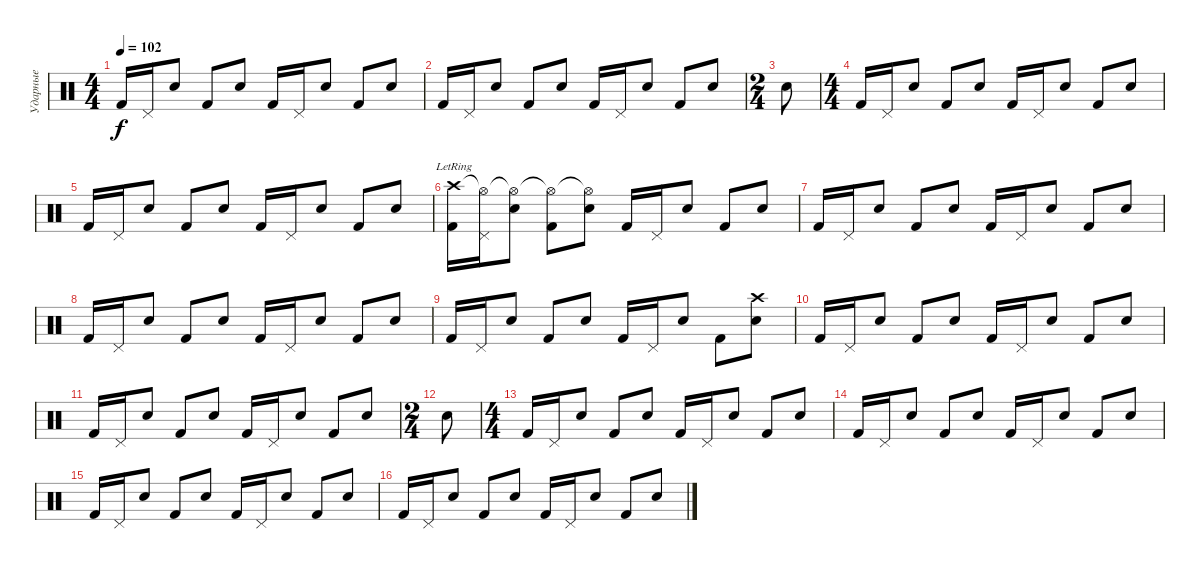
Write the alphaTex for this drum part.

\track ("Ударные" "Ударные") {instrument percussion}
\staff {score}
\articulation defaults
\ts (4 4)
\tempo 102
\clef neutral
\ks c "Kick (hit) 2".16{dy f} "Pedal Hi-Hat (hit)".16 "Snare (hit) 2".8 "Kick (hit) 2".8 "Snare (hit) 2".8 "Kick (hit) 2".16 "Pedal Hi-Hat (hit)".16 "Snare (hit) 2".8 "Kick (hit) 2".8 "Snare (hit) 2".8
|
"Kick (hit) 2".16 "Pedal Hi-Hat (hit)".16 "Snare (hit) 2".8 "Kick (hit) 2".8 "Snare (hit) 2".8 "Kick (hit) 2".16 "Pedal Hi-Hat (hit)".16 "Snare (hit) 2".8 "Kick (hit) 2".8 "Snare (hit) 2".8 |
\ts (2 4)
"Snare (hit) 2".8 |
\ts (4 4)
"Kick (hit) 2".16 "Pedal Hi-Hat (hit)".16 "Snare (hit) 2".8 "Kick (hit) 2".8 "Snare (hit) 2".8 "Kick (hit) 2".16 "Pedal Hi-Hat (hit)".16 "Snare (hit) 2".8 "Kick (hit) 2".8 "Snare (hit) 2".8 |
"Kick (hit) 2".16 "Pedal Hi-Hat (hit)".16 "Snare (hit) 2".8 "Kick (hit) 2".8 "Snare (hit) 2".8 "Kick (hit) 2".16 "Pedal Hi-Hat (hit)".16 "Snare (hit) 2".8 "Kick (hit) 2".8 "Snare (hit) 2".8 |
("Crash high (hit)"{lr} "Kick (hit) 2").16 ("Hi-Hat (open)"{t} "Pedal Hi-Hat (hit)").16 ("Hi-Hat (open)"{t} "Snare (hit) 2").8 ("Hi-Hat (open)"{t} "Kick (hit) 2").8 ("Hi-Hat (open)"{t} "Snare (hit) 2").8 "Kick (hit) 2".16 "Pedal Hi-Hat (hit)".16 "Snare (hit) 2".8 "Kick (hit) 2".8 "Snare (hit) 2".8 |
"Kick (hit) 2".16 "Pedal Hi-Hat (hit)".16 "Snare (hit) 2".8 "Kick (hit) 2".8 "Snare (hit) 2".8 "Kick (hit) 2".16 "Pedal Hi-Hat (hit)".16 "Snare (hit) 2".8 "Kick (hit) 2".8 "Snare (hit) 2".8 |
"Kick (hit) 2".16 "Pedal Hi-Hat (hit)".16 "Snare (hit) 2".8 "Kick (hit) 2".8 "Snare (hit) 2".8 "Kick (hit) 2".16 "Pedal Hi-Hat (hit)".16 "Snare (hit) 2".8 "Kick (hit) 2".8 "Snare (hit) 2".8 |
"Kick (hit) 2".16 "Pedal Hi-Hat (hit)".16 "Snare (hit) 2".8 "Kick (hit) 2".8 "Snare (hit) 2".8 "Kick (hit) 2".16 "Pedal Hi-Hat (hit)".16 "Snare (hit) 2".8 "Kick (hit) 2".8 ("Crash high (hit)" "Snare (hit) 2").8 |
"Kick (hit) 2".16 "Pedal Hi-Hat (hit)".16 "Snare (hit) 2".8 "Kick (hit) 2".8 "Snare (hit) 2".8 "Kick (hit) 2".16 "Pedal Hi-Hat (hit)".16 "Snare (hit) 2".8 "Kick (hit) 2".8 "Snare (hit) 2".8 |
"Kick (hit) 2".16 "Pedal Hi-Hat (hit)".16 "Snare (hit) 2".8 "Kick (hit) 2".8 "Snare (hit) 2".8 "Kick (hit) 2".16 "Pedal Hi-Hat (hit)".16 "Snare (hit) 2".8 "Kick (hit) 2".8 "Snare (hit) 2".8 |
\ts (2 4)
"Snare (hit) 2".8 |
\ts (4 4)
"Kick (hit) 2".16 "Pedal Hi-Hat (hit)".16 "Snare (hit) 2".8 "Kick (hit) 2".8 "Snare (hit) 2".8 "Kick (hit) 2".16 "Pedal Hi-Hat (hit)".16 "Snare (hit) 2".8 "Kick (hit) 2".8 "Snare (hit) 2".8 |
"Kick (hit) 2".16 "Pedal Hi-Hat (hit)".16 "Snare (hit) 2".8 "Kick (hit) 2".8 "Snare (hit) 2".8 "Kick (hit) 2".16 "Pedal Hi-Hat (hit)".16 "Snare (hit) 2".8 "Kick (hit) 2".8 "Snare (hit) 2".8 |
"Kick (hit) 2".16 "Pedal Hi-Hat (hit)".16 "Snare (hit) 2".8 "Kick (hit) 2".8 "Snare (hit) 2".8 "Kick (hit) 2".16 "Pedal Hi-Hat (hit)".16 "Snare (hit) 2".8 "Kick (hit) 2".8 "Snare (hit) 2".8 |
"Kick (hit) 2".16 "Pedal Hi-Hat (hit)".16 "Snare (hit) 2".8 "Kick (hit) 2".8 "Snare (hit) 2".8 "Kick (hit) 2".16 "Pedal Hi-Hat (hit)".16 "Snare (hit) 2".8 "Kick (hit) 2".8 "Snare (hit) 2".8
